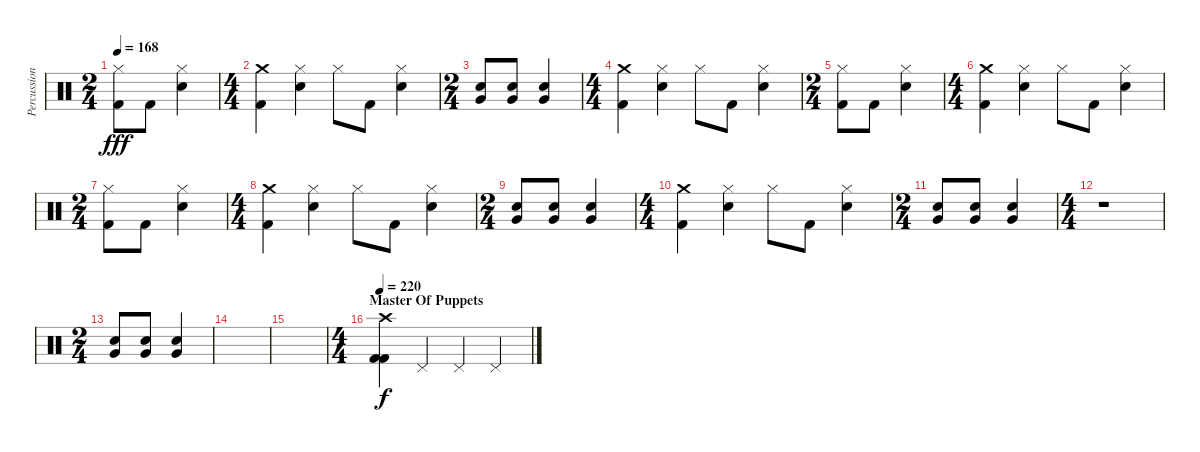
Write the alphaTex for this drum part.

\track ("Percussion" "Percussion") {instrument percussion}
\staff {score}
\articulation defaults
\ts (2 4)
\tempo 168
\clef neutral
\ks c
("Kick (hit) 2" "Hi-Hat (closed)").8{dy fff} "Kick (hit) 2".8 ("Snare (hit) 2" "Hi-Hat (closed)").4 |
\ts (4 4)
("Kick (hit) 2" "Crash medium (hit)").4 ("Hi-Hat (closed)" "Snare (hit) 2").4 "Hi-Hat (closed)".8 "Kick (hit) 2".8 ("Snare (hit) 2" "Hi-Hat (closed)").4 |
\ts (2 4)
("Very Low Tom (hit)" "Snare (hit) 2").8 ("Very Low Tom (hit)" "Snare (hit) 2").8 ("Snare (hit) 2" "Very Low Tom (hit)").4 |
\ts (4 4)
("Kick (hit) 2" "Crash medium (hit)").4 ("Hi-Hat (closed)" "Snare (hit) 2").4 "Hi-Hat (closed)".8 "Kick (hit) 2".8 ("Snare (hit) 2" "Hi-Hat (closed)").4 |
\ts (2 4)
("Kick (hit) 2" "Hi-Hat (closed)").8 "Kick (hit) 2".8 ("Snare (hit) 2" "Hi-Hat (closed)").4 |
\ts (4 4)
("Kick (hit) 2" "Crash medium (hit)").4 ("Hi-Hat (closed)" "Snare (hit) 2").4 "Hi-Hat (closed)".8 "Kick (hit) 2".8 ("Snare (hit) 2" "Hi-Hat (closed)").4 |
\ts (2 4)
("Kick (hit) 2" "Hi-Hat (closed)").8 "Kick (hit) 2".8 ("Snare (hit) 2" "Hi-Hat (closed)").4 |
\ts (4 4)
("Kick (hit) 2" "Crash medium (hit)").4 ("Hi-Hat (closed)" "Snare (hit) 2").4 "Hi-Hat (closed)".8 "Kick (hit) 2".8 ("Snare (hit) 2" "Hi-Hat (closed)").4 |
\ts (2 4)
("Very Low Tom (hit)" "Snare (hit) 2").8 ("Very Low Tom (hit)" "Snare (hit) 2").8 ("Snare (hit) 2" "Very Low Tom (hit)").4 |
\ts (4 4)
("Kick (hit) 2" "Crash medium (hit)").4 ("Hi-Hat (closed)" "Snare (hit) 2").4 "Hi-Hat (closed)".8 "Kick (hit) 2".8 ("Snare (hit) 2" "Hi-Hat (closed)").4 |
\ts (2 4)
("Very Low Tom (hit)" "Snare (hit) 2").8 ("Very Low Tom (hit)" "Snare (hit) 2").8 ("Snare (hit) 2" "Very Low Tom (hit)").4 |
\ts (4 4)
r.1 |
\ts (2 4)
("Very Low Tom (hit)" "Snare (hit) 2").8 ("Very Low Tom (hit)" "Snare (hit) 2").8 ("Snare (hit) 2" "Very Low Tom (hit)").4 |
|
|
\ts (4 4)
\section ("" "Master Of Puppets")
\tempo 220
("Crash high (hit)" "Kick (hit) 2" "Kick (hit) 2").4{dy f} "Pedal Hi-Hat (hit)".4 "Pedal Hi-Hat (hit)".4 "Pedal Hi-Hat (hit)".4
